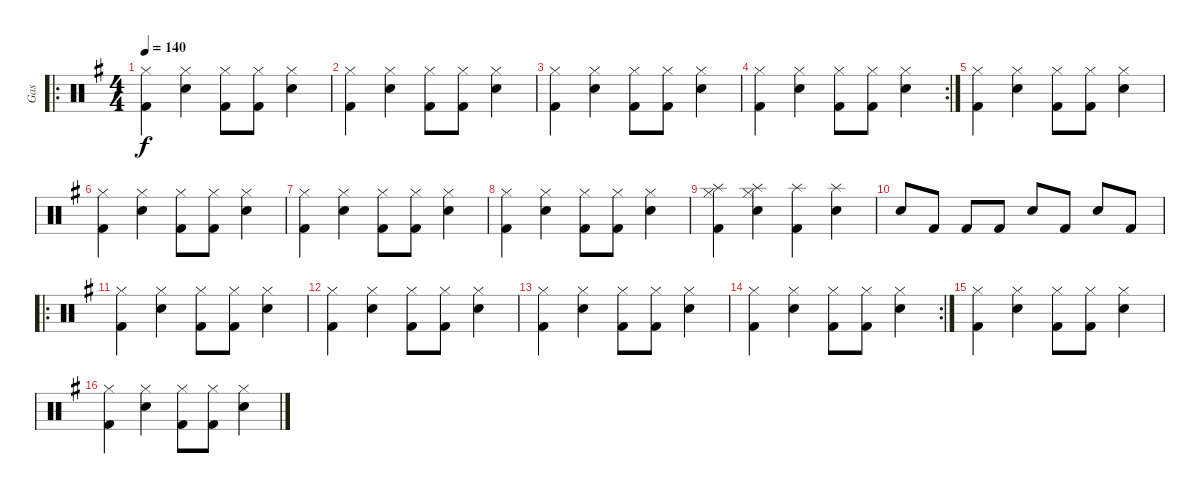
\track ("Gas" "Gas") {instrument percussion}
\staff {score}
\articulation defaults
\ro
\ts (4 4)
\tempo 140
\clef neutral
\ks eminor
("Hi-Hat (closed)" "Kick (hit) 2").4{dy f} ("Hi-Hat (closed)" "Electric Snare (hit)").4 ("Hi-Hat (closed)" "Kick (hit) 2").8 ("Hi-Hat (closed)" "Kick (hit) 2").8 ("Hi-Hat (closed)" "Electric Snare (hit)").4 |
("Hi-Hat (closed)" "Kick (hit) 2").4 ("Hi-Hat (closed)" "Electric Snare (hit)").4 ("Hi-Hat (closed)" "Kick (hit) 2").8 ("Hi-Hat (closed)" "Kick (hit) 2").8 ("Hi-Hat (closed)" "Electric Snare (hit)").4 |
("Hi-Hat (closed)" "Kick (hit) 2").4 ("Hi-Hat (closed)" "Electric Snare (hit)").4 ("Hi-Hat (closed)" "Kick (hit) 2").8 ("Hi-Hat (closed)" "Kick (hit) 2").8 ("Hi-Hat (closed)" "Electric Snare (hit)").4 |
\rc 2
("Hi-Hat (closed)" "Kick (hit) 2").4 ("Hi-Hat (closed)" "Electric Snare (hit)").4 ("Hi-Hat (closed)" "Kick (hit) 2").8 ("Hi-Hat (closed)" "Kick (hit) 2").8 ("Hi-Hat (closed)" "Electric Snare (hit)").4 |
("Hi-Hat (closed)" "Kick (hit) 2").4 ("Hi-Hat (closed)" "Electric Snare (hit)").4 ("Hi-Hat (closed)" "Kick (hit) 2").8 ("Hi-Hat (closed)" "Kick (hit) 2").8 ("Hi-Hat (closed)" "Electric Snare (hit)").4 |
("Hi-Hat (closed)" "Kick (hit) 2").4 ("Hi-Hat (closed)" "Electric Snare (hit)").4 ("Hi-Hat (closed)" "Kick (hit) 2").8 ("Hi-Hat (closed)" "Kick (hit) 2").8 ("Hi-Hat (closed)" "Electric Snare (hit)").4 |
("Hi-Hat (closed)" "Kick (hit) 2").4 ("Hi-Hat (closed)" "Electric Snare (hit)").4 ("Hi-Hat (closed)" "Kick (hit) 2").8 ("Hi-Hat (closed)" "Kick (hit) 2").8 ("Hi-Hat (closed)" "Electric Snare (hit)").4 |
("Hi-Hat (closed)" "Kick (hit) 2").4 ("Hi-Hat (closed)" "Electric Snare (hit)").4 ("Hi-Hat (closed)" "Kick (hit) 2").8 ("Hi-Hat (closed)" "Kick (hit) 2").8 ("Hi-Hat (closed)" "Electric Snare (hit)").4 |
("Splash (hit)" "Hi-Hat (closed)" "Kick (hit) 2").4 ("Splash (hit)" "Hi-Hat (closed)" "Electric Snare (hit)").4 ("Splash (hit)" "Kick (hit) 2").4 ("Splash (hit)" "Electric Snare (hit)").4 |
"Electric Snare (hit)".8 "Kick (hit) 2".8 "Kick (hit) 2".8 "Kick (hit) 2".8 "Electric Snare (hit)".8 "Kick (hit) 2".8 "Electric Snare (hit)".8 "Kick (hit) 2".8 |
\ro
("Hi-Hat (closed)" "Kick (hit) 2").4 ("Hi-Hat (closed)" "Electric Snare (hit)").4 ("Hi-Hat (closed)" "Kick (hit) 2").8 ("Hi-Hat (closed)" "Kick (hit) 2").8 ("Hi-Hat (closed)" "Electric Snare (hit)").4 |
("Hi-Hat (closed)" "Kick (hit) 2").4 ("Hi-Hat (closed)" "Electric Snare (hit)").4 ("Hi-Hat (closed)" "Kick (hit) 2").8 ("Hi-Hat (closed)" "Kick (hit) 2").8 ("Hi-Hat (closed)" "Electric Snare (hit)").4 |
("Hi-Hat (closed)" "Kick (hit) 2").4 ("Hi-Hat (closed)" "Electric Snare (hit)").4 ("Hi-Hat (closed)" "Kick (hit) 2").8 ("Hi-Hat (closed)" "Kick (hit) 2").8 ("Hi-Hat (closed)" "Electric Snare (hit)").4 |
\rc 2
("Hi-Hat (closed)" "Kick (hit) 2").4 ("Hi-Hat (closed)" "Electric Snare (hit)").4 ("Hi-Hat (closed)" "Kick (hit) 2").8 ("Hi-Hat (closed)" "Kick (hit) 2").8 ("Hi-Hat (closed)" "Electric Snare (hit)").4 |
("Hi-Hat (closed)" "Kick (hit) 2").4 ("Hi-Hat (closed)" "Electric Snare (hit)").4 ("Hi-Hat (closed)" "Kick (hit) 2").8 ("Hi-Hat (closed)" "Kick (hit) 2").8 ("Hi-Hat (closed)" "Electric Snare (hit)").4 |
("Hi-Hat (closed)" "Kick (hit) 2").4 ("Hi-Hat (closed)" "Electric Snare (hit)").4 ("Hi-Hat (closed)" "Kick (hit) 2").8 ("Hi-Hat (closed)" "Kick (hit) 2").8 ("Hi-Hat (closed)" "Electric Snare (hit)").4
